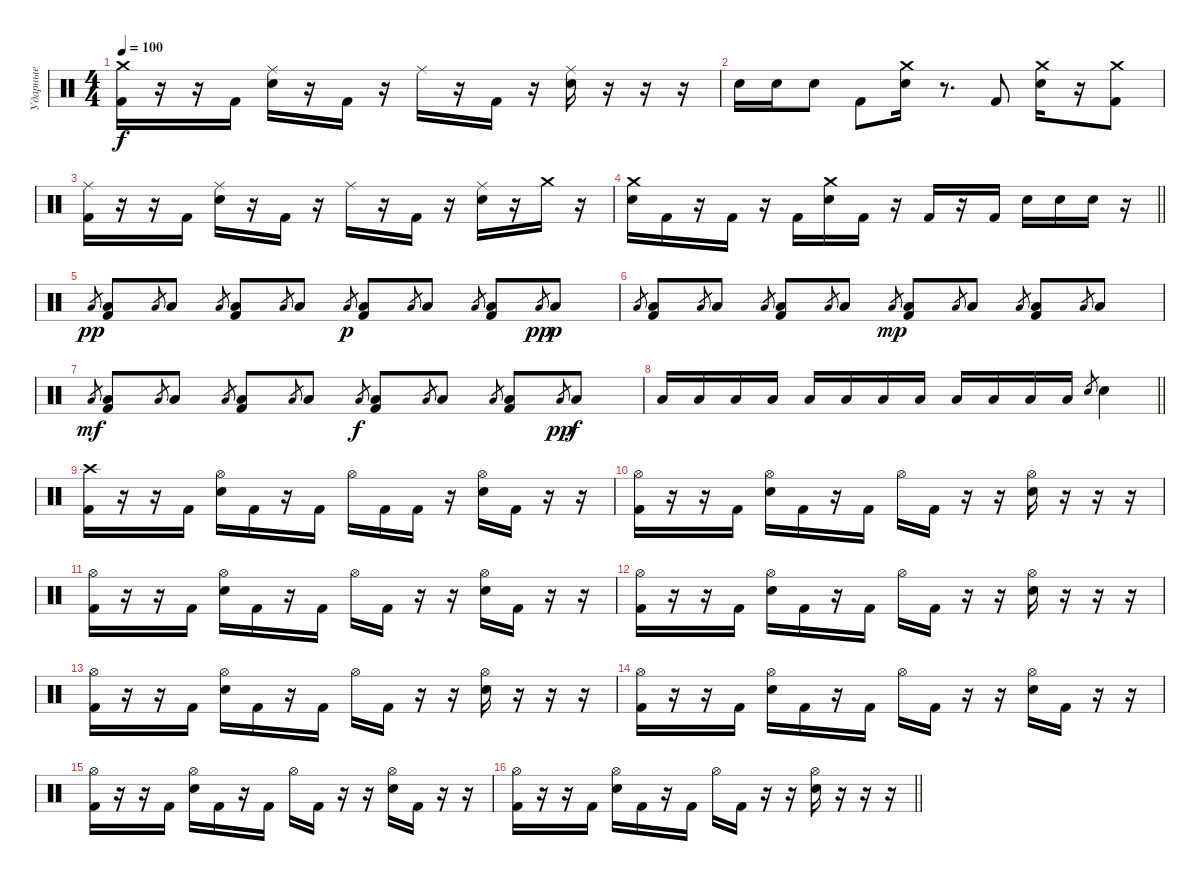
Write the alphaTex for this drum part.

\track ("Ударные" "Ударные") {instrument percussion}
\staff {score}
\articulation defaults
\ts (4 4)
\tempo 100
\clef neutral
\ks c
("Crash medium (hit)" "Kick (hit) 2").16{dy f} r.16 r.16 "Kick (hit) 2".16 ("Ride (middle)" "Electric Snare (hit)").16 r.16 "Kick (hit) 2".16 r.16 "Ride (middle)".16 r.16 "Kick (hit) 2".16 r.16 ("Ride (middle)" "Electric Snare (hit)").16 r.16 r.16 r.16 |
"Electric Snare (hit)".16 "Electric Snare (hit)".16 "Electric Snare (hit)".8 "Kick (hit) 2".8 ("Crash medium (hit)" "Electric Snare (hit)").16 r.8{d} "Kick (hit) 2".8 ("Crash medium (hit)" "Electric Snare (hit)").16 r.16 ("Crash medium (hit)" "Kick (hit) 2").8 |
("Ride (middle)" "Kick (hit) 2").16 r.16 r.16 "Kick (hit) 2".16 ("Ride (middle)" "Electric Snare (hit)").16 r.16 "Kick (hit) 2".16 r.16 "Ride (middle)".16 r.16 "Kick (hit) 2".16 r.16 ("Ride (middle)" "Electric Snare (hit)").16 r.16 "Crash medium (hit)".16 r.16 |
\barLineRight lightlight
("Crash medium (hit)" "Electric Snare (hit)").16 "Kick (hit) 2".16 r.16 "Kick (hit) 2".16 r.16 "Kick (hit) 2".16 ("Crash medium (hit)" "Electric Snare (hit)").16 "Kick (hit) 2".16 r.16 "Kick (hit) 2".16 r.16 "Kick (hit) 2".16 "Electric Snare (hit)".16 "Electric Snare (hit)".16 "Electric Snare (hit)".16 r.16 |
"Low Floor Tom (hit)".8{gr dy pp} ("Low Floor Tom (hit)" "Kick (hit) 2").8 "Low Floor Tom (hit)".8{gr} "Low Floor Tom (hit)".8 "Low Floor Tom (hit)".8{gr} ("Low Floor Tom (hit)" "Kick (hit) 2").8 "Low Floor Tom (hit)".8{gr} "Low Floor Tom (hit)".8 "Low Floor Tom (hit)".8{gr dy p} ("Low Floor Tom (hit)" "Kick (hit) 2").8 "Low Floor Tom (hit)".8{gr} "Low Floor Tom (hit)".8 "Low Floor Tom (hit)".8{gr} ("Low Floor Tom (hit)" "Kick (hit) 2").8 "Low Floor Tom (hit)".8{gr dy pp} "Low Floor Tom (hit)".8{dy p} |
"Low Floor Tom (hit)".8{gr} ("Low Floor Tom (hit)" "Kick (hit) 2").8 "Low Floor Tom (hit)".8{gr} "Low Floor Tom (hit)".8 "Low Floor Tom (hit)".8{gr} ("Low Floor Tom (hit)" "Kick (hit) 2").8 "Low Floor Tom (hit)".8{gr} "Low Floor Tom (hit)".8 "Low Floor Tom (hit)".8{gr dy mp} ("Low Floor Tom (hit)" "Kick (hit) 2").8 "Low Floor Tom (hit)".8{gr} "Low Floor Tom (hit)".8 "Low Floor Tom (hit)".8{gr} ("Low Floor Tom (hit)" "Kick (hit) 2").8 "Low Floor Tom (hit)".8{gr} "Low Floor Tom (hit)".8 |
"Low Floor Tom (hit)".8{gr dy mf} ("Low Floor Tom (hit)" "Kick (hit) 2").8 "Low Floor Tom (hit)".8{gr} "Low Floor Tom (hit)".8 "Low Floor Tom (hit)".8{gr} ("Low Floor Tom (hit)" "Kick (hit) 2").8 "Low Floor Tom (hit)".8{gr} "Low Floor Tom (hit)".8 "Low Floor Tom (hit)".8{gr dy f} ("Low Floor Tom (hit)" "Kick (hit) 2").8 "Low Floor Tom (hit)".8{gr} "Low Floor Tom (hit)".8 "Low Floor Tom (hit)".8{gr} ("Low Floor Tom (hit)" "Kick (hit) 2").8 "Low Floor Tom (hit)".8{gr dy pp} "Low Floor Tom (hit)".8{dy f} |
\barLineRight lightlight "Low Floor Tom (hit)".16 "Low Floor Tom (hit)".16 "Low Floor Tom (hit)".16 "Low Floor Tom (hit)".16 "Low Floor Tom (hit)".16 "Low Floor Tom (hit)".16 "Low Floor Tom (hit)".16 "Low Floor Tom (hit)".16 "Low Floor Tom (hit)".16 "Low Floor Tom (hit)".16 "Low Floor Tom (hit)".16 "Low Floor Tom (hit)".16 "Electric Snare (hit)".8{gr} "Electric Snare (hit)".4
|
("Crash high (hit)" "Kick (hit) 2").16 r.16 r.16 "Kick (hit) 2".16 ("Hi-Hat (open)" "Electric Snare (hit)").16 "Kick (hit) 2".16 r.16 "Kick (hit) 2".16 "Hi-Hat (open)".16 "Kick (hit) 2".16 "Kick (hit) 2".16 r.16 ("Hi-Hat (open)" "Electric Snare (hit)").16 "Kick (hit) 2".16 r.16 r.16 |
("Hi-Hat (open)" "Kick (hit) 2").16 r.16 r.16 "Kick (hit) 2".16 ("Hi-Hat (open)" "Electric Snare (hit)").16 "Kick (hit) 2".16 r.16 "Kick (hit) 2".16 "Hi-Hat (open)".16 "Kick (hit) 2".16 r.16 r.16 ("Hi-Hat (open)" "Electric Snare (hit)").16 r.16 r.16 r.16 |
("Hi-Hat (open)" "Kick (hit) 2").16 r.16 r.16 "Kick (hit) 2".16 ("Hi-Hat (open)" "Electric Snare (hit)").16 "Kick (hit) 2".16 r.16 "Kick (hit) 2".16 "Hi-Hat (open)".16 "Kick (hit) 2".16 r.16 r.16 ("Hi-Hat (open)" "Electric Snare (hit)").16 "Kick (hit) 2".16 r.16 r.16 |
("Hi-Hat (open)" "Kick (hit) 2").16 r.16 r.16 "Kick (hit) 2".16 ("Hi-Hat (open)" "Electric Snare (hit)").16 "Kick (hit) 2".16 r.16 "Kick (hit) 2".16 "Hi-Hat (open)".16 "Kick (hit) 2".16 r.16 r.16 ("Hi-Hat (open)" "Electric Snare (hit)").16 r.16 r.16 r.16 |
("Hi-Hat (open)" "Kick (hit) 2").16 r.16 r.16 "Kick (hit) 2".16 ("Hi-Hat (open)" "Electric Snare (hit)").16 "Kick (hit) 2".16 r.16 "Kick (hit) 2".16 "Hi-Hat (open)".16 "Kick (hit) 2".16 r.16 r.16 ("Hi-Hat (open)" "Electric Snare (hit)").16 r.16 r.16 r.16 |
("Hi-Hat (open)" "Kick (hit) 2").16 r.16 r.16 "Kick (hit) 2".16 ("Hi-Hat (open)" "Electric Snare (hit)").16 "Kick (hit) 2".16 r.16 "Kick (hit) 2".16 "Hi-Hat (open)".16 "Kick (hit) 2".16 r.16 r.16 ("Hi-Hat (open)" "Electric Snare (hit)").16 "Kick (hit) 2".16 r.16 r.16 |
("Hi-Hat (open)" "Kick (hit) 2").16 r.16 r.16 "Kick (hit) 2".16 ("Hi-Hat (open)" "Electric Snare (hit)").16 "Kick (hit) 2".16 r.16 "Kick (hit) 2".16 "Hi-Hat (open)".16 "Kick (hit) 2".16 r.16 r.16 ("Hi-Hat (open)" "Electric Snare (hit)").16 "Kick (hit) 2".16 r.16 r.16 |
\barLineRight lightlight
("Hi-Hat (open)" "Kick (hit) 2").16 r.16 r.16 "Kick (hit) 2".16 ("Hi-Hat (open)" "Electric Snare (hit)").16 "Kick (hit) 2".16 r.16 "Kick (hit) 2".16 "Hi-Hat (open)".16 "Kick (hit) 2".16 r.16 r.16 ("Hi-Hat (open)" "Electric Snare (hit)").16 r.16 r.16 r.16
